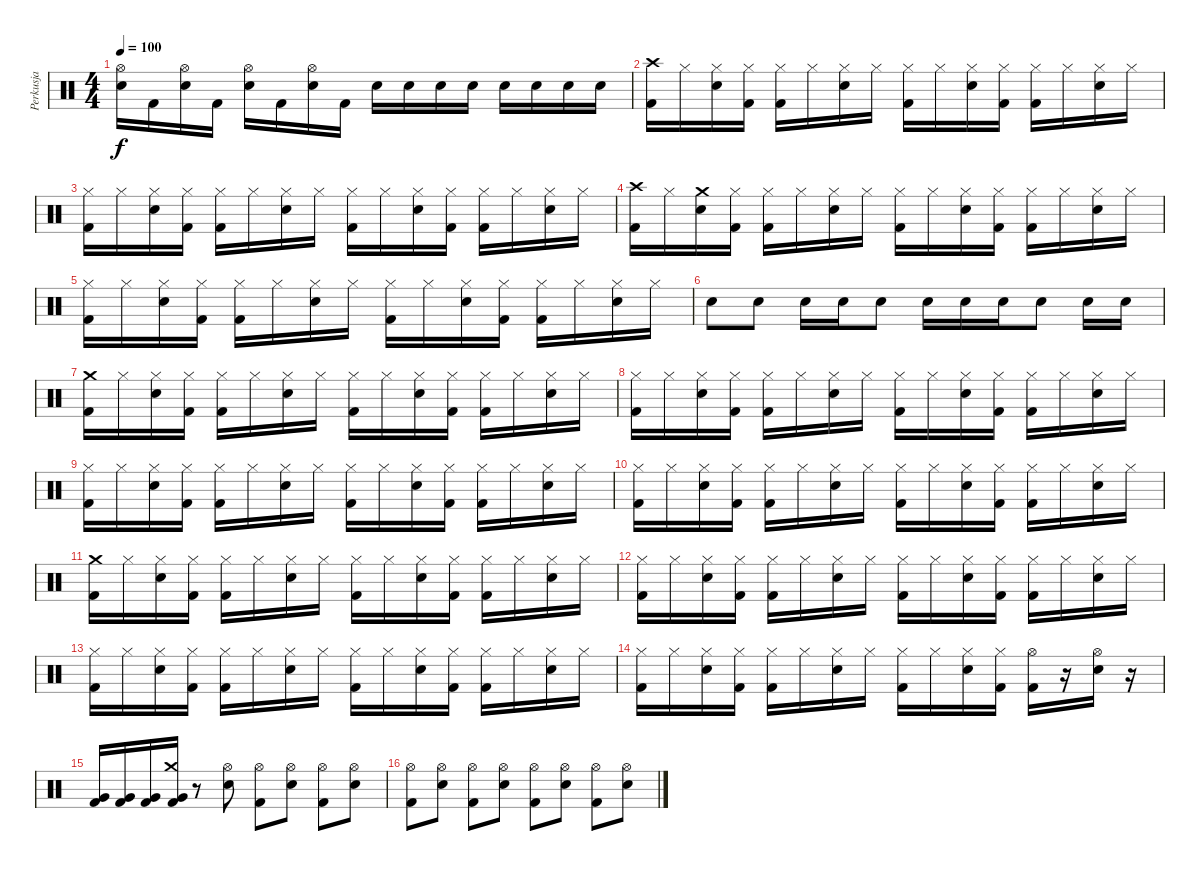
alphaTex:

\track ("Perkusja" "Perkusja") {instrument percussion}
\staff {score}
\articulation defaults
\ts (4 4)
\tempo 100
\clef neutral
\ks c
("Hi-Hat (open)" "Electric Snare (hit)").16{dy f} "Kick (hit) 2".16 ("Hi-Hat (open)" "Electric Snare (hit)").16 "Kick (hit) 2".16 ("Hi-Hat (open)" "Electric Snare (hit)").16 "Kick (hit) 2".16 ("Hi-Hat (open)" "Electric Snare (hit)").16 "Kick (hit) 2".16 "Electric Snare (hit)".16 "Electric Snare (hit)".16 "Electric Snare (hit)".16 "Electric Snare (hit)".16 "Electric Snare (hit)".16 "Electric Snare (hit)".16 "Electric Snare (hit)".16 "Electric Snare (hit)".16 |
("Crash high (hit)" "Kick (hit) 2").16 "Hi-Hat (closed)".16 ("Hi-Hat (closed)" "Electric Snare (hit)").16 ("Hi-Hat (closed)" "Kick (hit) 2").16 ("Hi-Hat (closed)" "Kick (hit) 2").16 "Hi-Hat (closed)".16 ("Hi-Hat (closed)" "Electric Snare (hit)").16 "Hi-Hat (closed)".16 ("Hi-Hat (closed)" "Kick (hit) 2").16 "Hi-Hat (closed)".16 ("Hi-Hat (closed)" "Electric Snare (hit)").16 ("Hi-Hat (closed)" "Kick (hit) 2").16 ("Hi-Hat (closed)" "Kick (hit) 2").16 "Hi-Hat (closed)".16 ("Hi-Hat (closed)" "Electric Snare (hit)").16 "Hi-Hat (closed)".16 |
("Hi-Hat (closed)" "Kick (hit) 2").16 "Hi-Hat (closed)".16 ("Hi-Hat (closed)" "Electric Snare (hit)").16 ("Hi-Hat (closed)" "Kick (hit) 2").16 ("Hi-Hat (closed)" "Kick (hit) 2").16 "Hi-Hat (closed)".16 ("Hi-Hat (closed)" "Electric Snare (hit)").16 "Hi-Hat (closed)".16 ("Hi-Hat (closed)" "Kick (hit) 2").16 "Hi-Hat (closed)".16 ("Hi-Hat (closed)" "Electric Snare (hit)").16 ("Hi-Hat (closed)" "Kick (hit) 2").16 ("Hi-Hat (closed)" "Kick (hit) 2").16 "Hi-Hat (closed)".16 ("Hi-Hat (closed)" "Electric Snare (hit)").16 "Hi-Hat (closed)".16 |
("Crash high (hit)" "Kick (hit) 2").16 "Hi-Hat (closed)".16 ("Crash medium (hit)" "Electric Snare (hit)").16 ("Hi-Hat (closed)" "Kick (hit) 2").16 ("Hi-Hat (closed)" "Kick (hit) 2").16 "Hi-Hat (closed)".16 ("Hi-Hat (closed)" "Electric Snare (hit)").16 "Hi-Hat (closed)".16 ("Hi-Hat (closed)" "Kick (hit) 2").16 "Hi-Hat (closed)".16 ("Hi-Hat (closed)" "Electric Snare (hit)").16 ("Hi-Hat (closed)" "Kick (hit) 2").16 ("Hi-Hat (closed)" "Kick (hit) 2").16 "Hi-Hat (closed)".16 ("Hi-Hat (closed)" "Electric Snare (hit)").16 "Hi-Hat (closed)".16 |
("Hi-Hat (closed)" "Kick (hit) 2").16 "Hi-Hat (closed)".16 ("Hi-Hat (closed)" "Electric Snare (hit)").16 ("Hi-Hat (closed)" "Kick (hit) 2").16 ("Hi-Hat (closed)" "Kick (hit) 2").16 "Hi-Hat (closed)".16 ("Hi-Hat (closed)" "Electric Snare (hit)").16 "Hi-Hat (closed)".16 ("Hi-Hat (closed)" "Kick (hit) 2").16 "Hi-Hat (closed)".16 ("Hi-Hat (closed)" "Electric Snare (hit)").16 ("Hi-Hat (closed)" "Kick (hit) 2").16 ("Hi-Hat (closed)" "Kick (hit) 2").16 "Hi-Hat (closed)".16 ("Hi-Hat (closed)" "Electric Snare (hit)").16 "Hi-Hat (closed)".16 |
"Electric Snare (hit)".8 "Electric Snare (hit)".8 "Electric Snare (hit)".16 "Electric Snare (hit)".16 "Electric Snare (hit)".8 "Electric Snare (hit)".16 "Electric Snare (hit)".16 "Electric Snare (hit)".16 "Electric Snare (hit)".8 "Electric Snare (hit)".16 "Electric Snare (hit)".16 |
("Crash medium (hit)" "Kick (hit) 2").16 "Hi-Hat (closed)".16 ("Hi-Hat (closed)" "Electric Snare (hit)").16 ("Hi-Hat (closed)" "Kick (hit) 2").16 ("Hi-Hat (closed)" "Kick (hit) 2").16 "Hi-Hat (closed)".16 ("Hi-Hat (closed)" "Electric Snare (hit)").16 "Hi-Hat (closed)".16 ("Hi-Hat (closed)" "Kick (hit) 2").16 "Hi-Hat (closed)".16 ("Hi-Hat (closed)" "Electric Snare (hit)").16 ("Hi-Hat (closed)" "Kick (hit) 2").16 ("Hi-Hat (closed)" "Kick (hit) 2").16 "Hi-Hat (closed)".16 ("Hi-Hat (closed)" "Electric Snare (hit)").16 "Hi-Hat (closed)".16 |
("Hi-Hat (closed)" "Kick (hit) 2").16 "Hi-Hat (closed)".16 ("Hi-Hat (closed)" "Electric Snare (hit)").16 ("Hi-Hat (closed)" "Kick (hit) 2").16 ("Hi-Hat (closed)" "Kick (hit) 2").16 "Hi-Hat (closed)".16 ("Hi-Hat (closed)" "Electric Snare (hit)").16 "Hi-Hat (closed)".16 ("Hi-Hat (closed)" "Kick (hit) 2").16 "Hi-Hat (closed)".16 ("Hi-Hat (closed)" "Electric Snare (hit)").16 ("Hi-Hat (closed)" "Kick (hit) 2").16 ("Hi-Hat (closed)" "Kick (hit) 2").16 "Hi-Hat (closed)".16 ("Hi-Hat (closed)" "Electric Snare (hit)").16 "Hi-Hat (closed)".16 |
("Hi-Hat (closed)" "Kick (hit) 2").16 "Hi-Hat (closed)".16 ("Hi-Hat (closed)" "Electric Snare (hit)").16 ("Hi-Hat (closed)" "Kick (hit) 2").16 ("Hi-Hat (closed)" "Kick (hit) 2").16 "Hi-Hat (closed)".16 ("Hi-Hat (closed)" "Electric Snare (hit)").16 "Hi-Hat (closed)".16 ("Hi-Hat (closed)" "Kick (hit) 2").16 "Hi-Hat (closed)".16 ("Hi-Hat (closed)" "Electric Snare (hit)").16 ("Hi-Hat (closed)" "Kick (hit) 2").16 ("Hi-Hat (closed)" "Kick (hit) 2").16 "Hi-Hat (closed)".16 ("Hi-Hat (closed)" "Electric Snare (hit)").16 "Hi-Hat (closed)".16 |
("Hi-Hat (closed)" "Kick (hit) 2").16 "Hi-Hat (closed)".16 ("Hi-Hat (closed)" "Electric Snare (hit)").16 ("Hi-Hat (closed)" "Kick (hit) 2").16 ("Hi-Hat (closed)" "Kick (hit) 2").16 "Hi-Hat (closed)".16 ("Hi-Hat (closed)" "Electric Snare (hit)").16 "Hi-Hat (closed)".16 ("Hi-Hat (closed)" "Kick (hit) 2").16 "Hi-Hat (closed)".16 ("Hi-Hat (closed)" "Electric Snare (hit)").16 ("Hi-Hat (closed)" "Kick (hit) 2").16 ("Hi-Hat (closed)" "Kick (hit) 2").16 "Hi-Hat (closed)".16 ("Hi-Hat (closed)" "Electric Snare (hit)").16 "Hi-Hat (closed)".16 |
("Crash medium (hit)" "Kick (hit) 2").16 "Hi-Hat (closed)".16 ("Hi-Hat (closed)" "Electric Snare (hit)").16 ("Hi-Hat (closed)" "Kick (hit) 2").16 ("Hi-Hat (closed)" "Kick (hit) 2").16 "Hi-Hat (closed)".16 ("Hi-Hat (closed)" "Electric Snare (hit)").16 "Hi-Hat (closed)".16 ("Hi-Hat (closed)" "Kick (hit) 2").16 "Hi-Hat (closed)".16 ("Hi-Hat (closed)" "Electric Snare (hit)").16 ("Hi-Hat (closed)" "Kick (hit) 2").16 ("Hi-Hat (closed)" "Kick (hit) 2").16 "Hi-Hat (closed)".16 ("Hi-Hat (closed)" "Electric Snare (hit)").16 "Hi-Hat (closed)".16 |
("Hi-Hat (closed)" "Kick (hit) 2").16 "Hi-Hat (closed)".16 ("Hi-Hat (closed)" "Electric Snare (hit)").16 ("Hi-Hat (closed)" "Kick (hit) 2").16 ("Hi-Hat (closed)" "Kick (hit) 2").16 "Hi-Hat (closed)".16 ("Hi-Hat (closed)" "Electric Snare (hit)").16 "Hi-Hat (closed)".16 ("Hi-Hat (closed)" "Kick (hit) 2").16 "Hi-Hat (closed)".16 ("Hi-Hat (closed)" "Electric Snare (hit)").16 ("Hi-Hat (closed)" "Kick (hit) 2").16 ("Hi-Hat (closed)" "Kick (hit) 2").16 "Hi-Hat (closed)".16 ("Hi-Hat (closed)" "Electric Snare (hit)").16 "Hi-Hat (closed)".16 |
("Hi-Hat (closed)" "Kick (hit) 2").16 "Hi-Hat (closed)".16 ("Hi-Hat (closed)" "Electric Snare (hit)").16 ("Hi-Hat (closed)" "Kick (hit) 2").16 ("Hi-Hat (closed)" "Kick (hit) 2").16 "Hi-Hat (closed)".16 ("Hi-Hat (closed)" "Electric Snare (hit)").16 "Hi-Hat (closed)".16 ("Hi-Hat (closed)" "Kick (hit) 2").16 "Hi-Hat (closed)".16 ("Hi-Hat (closed)" "Electric Snare (hit)").16 ("Hi-Hat (closed)" "Kick (hit) 2").16 ("Hi-Hat (closed)" "Kick (hit) 2").16 "Hi-Hat (closed)".16 ("Hi-Hat (closed)" "Electric Snare (hit)").16 "Hi-Hat (closed)".16 |
("Hi-Hat (closed)" "Kick (hit) 2").16 "Hi-Hat (closed)".16 ("Hi-Hat (closed)" "Electric Snare (hit)").16 ("Hi-Hat (closed)" "Kick (hit) 2").16 ("Hi-Hat (closed)" "Kick (hit) 2").16 "Hi-Hat (closed)".16 ("Hi-Hat (closed)" "Electric Snare (hit)").16 "Hi-Hat (closed)".16 ("Hi-Hat (closed)" "Kick (hit) 2").16 "Hi-Hat (closed)".16 ("Hi-Hat (closed)" "Electric Snare (hit)").16 ("Hi-Hat (closed)" "Kick (hit) 2").16 ("Hi-Hat (open)" "Kick (hit) 2").16 r.16 ("Hi-Hat (open)" "Electric Snare (hit)").16 r.16 |
("Kick (hit) 2" "Very Low Tom (hit)").16 ("Kick (hit) 2" "Very Low Tom (hit)").16 ("Kick (hit) 2" "Very Low Tom (hit)").16 ("Crash medium (hit)" "Kick (hit) 2" "Very Low Tom (hit)").16 r.8 ("Hi-Hat (open)" "Electric Snare (hit)").8 ("Hi-Hat (open)" "Kick (hit) 2").8 ("Hi-Hat (open)" "Electric Snare (hit)").8 ("Hi-Hat (open)" "Kick (hit) 2").8 ("Hi-Hat (open)" "Electric Snare (hit)").8 |
("Hi-Hat (open)" "Kick (hit) 2").8 ("Hi-Hat (open)" "Electric Snare (hit)").8 ("Hi-Hat (open)" "Kick (hit) 2").8 ("Hi-Hat (open)" "Electric Snare (hit)").8 ("Hi-Hat (open)" "Kick (hit) 2").8 ("Hi-Hat (open)" "Electric Snare (hit)").8 ("Hi-Hat (open)" "Kick (hit) 2").8 ("Hi-Hat (open)" "Electric Snare (hit)").8
